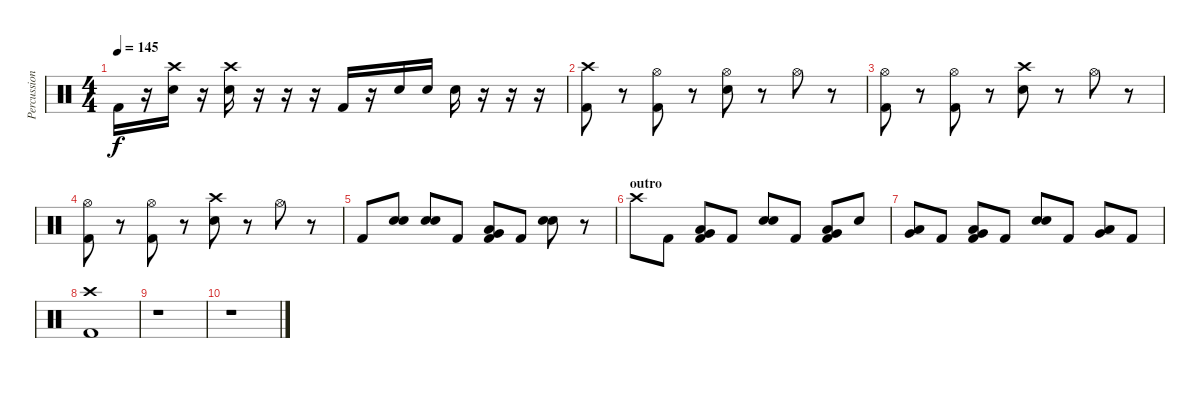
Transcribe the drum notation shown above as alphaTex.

\track ("Percussion" "Percussion") {instrument percussion}
\staff {score}
\articulation defaults
\ts (4 4)
\tempo 145
\clef neutral
\ks c "Kick (hit) 2".16{dy f}
r.16 ("Crash high (hit)" "Electric Snare (hit)").16 r.16 ("Crash high (hit)" "Electric Snare (hit)").16 r.16 r.16 r.16 "Kick (hit) 2".16 r.16 "Electric Snare (hit)".16 "Electric Snare (hit)".16 "Electric Snare (hit)".16 r.16 r.16 r.16 |
("Crash high (hit)" "Kick (hit) 2").8 r.8 ("Hi-Hat (open)" "Kick (hit) 2").8 r.8 ("Hi-Hat (open)" "Electric Snare (hit)").8 r.8 "Hi-Hat (open)".8 r.8 |
("Hi-Hat (open)" "Kick (hit) 2").8 r.8 ("Hi-Hat (open)" "Kick (hit) 2").8 r.8 ("Crash high (hit)" "Electric Snare (hit)").8 r.8 "Hi-Hat (open)".8 r.8 |
("Hi-Hat (open)" "Kick (hit) 2").8 r.8 ("Hi-Hat (open)" "Kick (hit) 2").8 r.8 ("Crash high (hit)" "Electric Snare (hit)").8 r.8 "Hi-Hat (open)".8 r.8 |
"Kick (hit) 2".8 ("Electric Snare (hit)" "Electric Snare (hit)").8 ("Electric Snare (hit)" "Electric Snare (hit)").8 "Kick (hit) 2".8 ("Low Tom (hit)" "Very Low Tom (hit)" "Kick (hit) 2").8 "Kick (hit) 2".8 ("Electric Snare (hit)" "Electric Snare (hit)").8 r.8 |
\section ("" "outro")
"Crash high (hit)".8 "Kick (hit) 2".8 ("Low Tom (hit)" "Very Low Tom (hit)" "Kick (hit) 2").8 "Kick (hit) 2".8 ("Electric Snare (hit)" "Electric Snare (hit)").8 "Kick (hit) 2".8 ("Low Tom (hit)" "Very Low Tom (hit)" "Kick (hit) 2").8 "Electric Snare (hit)".8 |
("Low Tom (hit)" "Very Low Tom (hit)").8 "Kick (hit) 2".8 ("Low Tom (hit)" "Very Low Tom (hit)" "Kick (hit) 2").8 "Kick (hit) 2".8 ("Electric Snare (hit)" "Electric Snare (hit)").8 "Kick (hit) 2".8 ("Low Tom (hit)" "Very Low Tom (hit)").8 "Kick (hit) 2".8 |
("Crash high (hit)" "Kick (hit) 2").1 |
r.1 |
r.1
